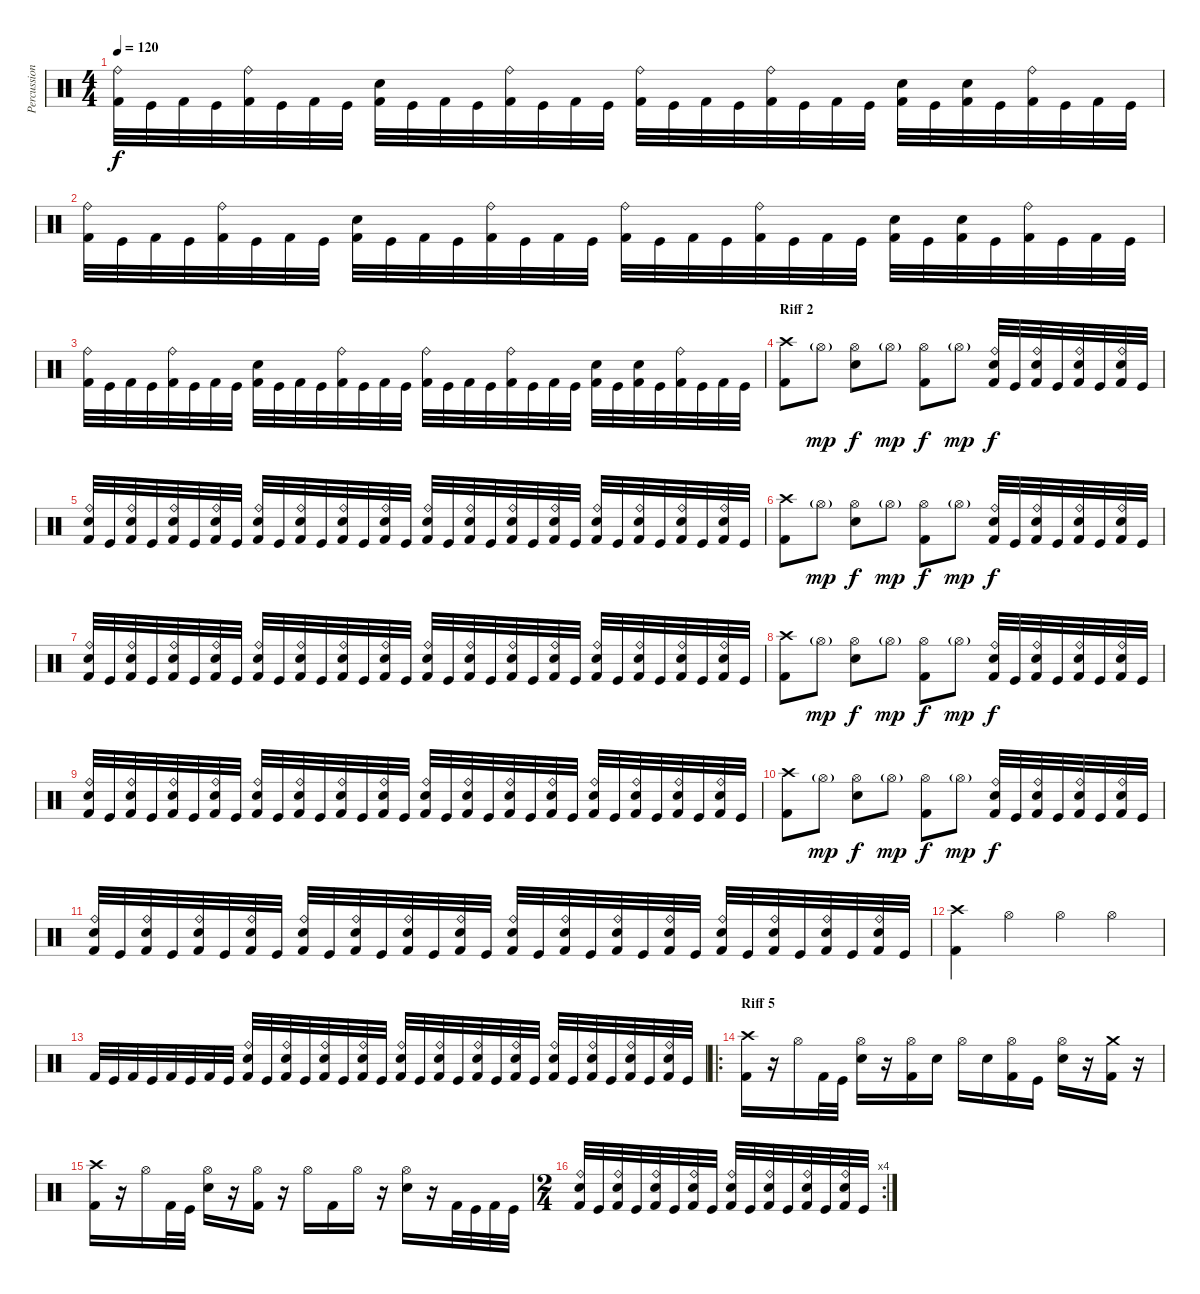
\track ("Percussion" "Percussion") {instrument percussion}
\staff {score}
\articulation defaults
\ts (4 4)
\tempo 120
\clef neutral
\ks c
("Kick (hit) 2" "Ride (bell)").32{dy f} "Kick (hit)".32 "Kick (hit) 2".32 "Kick (hit)".32 ("Kick (hit) 2" "Ride (bell)").32 "Kick (hit)".32 "Kick (hit) 2".32 "Kick (hit)".32 ("Kick (hit) 2" "Electric Snare (hit)").32 "Kick (hit)".32 "Kick (hit) 2".32 "Kick (hit)".32 ("Kick (hit) 2" "Ride (bell)").32 "Kick (hit)".32 "Kick (hit) 2".32 "Kick (hit)".32 ("Kick (hit) 2" "Ride (bell)").32 "Kick (hit)".32 "Kick (hit) 2".32 "Kick (hit)".32 ("Kick (hit) 2" "Ride (bell)").32 "Kick (hit)".32 "Kick (hit) 2".32 "Kick (hit)".32 ("Kick (hit) 2" "Electric Snare (hit)").32 "Kick (hit)".32 ("Kick (hit) 2" "Electric Snare (hit)").32 "Kick (hit)".32 ("Kick (hit) 2" "Ride (bell)").32 "Kick (hit)".32 "Kick (hit) 2".32 "Kick (hit)".32 |
("Kick (hit) 2" "Ride (bell)").32 "Kick (hit)".32 "Kick (hit) 2".32 "Kick (hit)".32 ("Kick (hit) 2" "Ride (bell)").32 "Kick (hit)".32 "Kick (hit) 2".32 "Kick (hit)".32 ("Kick (hit) 2" "Electric Snare (hit)").32 "Kick (hit)".32 "Kick (hit) 2".32 "Kick (hit)".32 ("Kick (hit) 2" "Ride (bell)").32 "Kick (hit)".32 "Kick (hit) 2".32 "Kick (hit)".32 ("Kick (hit) 2" "Ride (bell)").32 "Kick (hit)".32 "Kick (hit) 2".32 "Kick (hit)".32 ("Kick (hit) 2" "Ride (bell)").32 "Kick (hit)".32 "Kick (hit) 2".32 "Kick (hit)".32 ("Kick (hit) 2" "Electric Snare (hit)").32 "Kick (hit)".32 ("Kick (hit) 2" "Electric Snare (hit)").32 "Kick (hit)".32 ("Kick (hit) 2" "Ride (bell)").32 "Kick (hit)".32 "Kick (hit) 2".32 "Kick (hit)".32 |
("Kick (hit) 2" "Ride (bell)").32 "Kick (hit)".32 "Kick (hit) 2".32 "Kick (hit)".32 ("Kick (hit) 2" "Ride (bell)").32 "Kick (hit)".32 "Kick (hit) 2".32 "Kick (hit)".32 ("Kick (hit) 2" "Electric Snare (hit)").32 "Kick (hit)".32 "Kick (hit) 2".32 "Kick (hit)".32 ("Kick (hit) 2" "Ride (bell)").32 "Kick (hit)".32 "Kick (hit) 2".32 "Kick (hit)".32 ("Kick (hit) 2" "Ride (bell)").32 "Kick (hit)".32 "Kick (hit) 2".32 "Kick (hit)".32 ("Kick (hit) 2" "Ride (bell)").32 "Kick (hit)".32 "Kick (hit) 2".32 "Kick (hit)".32 ("Kick (hit) 2" "Electric Snare (hit)").32 "Kick (hit)".32 ("Kick (hit) 2" "Electric Snare (hit)").32 "Kick (hit)".32 ("Kick (hit) 2" "Ride (bell)").32 "Kick (hit)".32 "Kick (hit) 2".32 "Kick (hit)".32 |
\section ("" "Riff 2")
("Kick (hit) 2" "Crash high (hit)").8 "Hi-Hat (open)"{g}.8{dy mp} ("Electric Snare (hit)" "Hi-Hat (open)").8{dy f} "Hi-Hat (open)"{g}.8{dy mp} ("Kick (hit) 2" "Hi-Hat (open)").8{dy f} "Hi-Hat (open)"{g}.8{dy mp} ("Kick (hit) 2" "Electric Snare (hit)" "Ride (bell)").32{dy f} "Kick (hit)".32 ("Kick (hit) 2" "Electric Snare (hit)" "Ride (bell)").32 "Kick (hit)".32 ("Kick (hit) 2" "Electric Snare (hit)" "Ride (bell)").32 "Kick (hit)".32 ("Kick (hit) 2" "Electric Snare (hit)" "Ride (bell)").32 "Kick (hit)".32 |
("Kick (hit) 2" "Electric Snare (hit)" "Ride (bell)").32 "Kick (hit)".32 ("Kick (hit) 2" "Electric Snare (hit)" "Ride (bell)").32 "Kick (hit)".32 ("Kick (hit) 2" "Electric Snare (hit)" "Ride (bell)").32 "Kick (hit)".32 ("Kick (hit) 2" "Electric Snare (hit)" "Ride (bell)").32 "Kick (hit)".32 ("Kick (hit) 2" "Electric Snare (hit)" "Ride (bell)").32 "Kick (hit)".32 ("Kick (hit) 2" "Electric Snare (hit)" "Ride (bell)").32 "Kick (hit)".32 ("Kick (hit) 2" "Electric Snare (hit)" "Ride (bell)").32 "Kick (hit)".32 ("Kick (hit) 2" "Electric Snare (hit)" "Ride (bell)").32 "Kick (hit)".32 ("Kick (hit) 2" "Electric Snare (hit)" "Ride (bell)").32 "Kick (hit)".32 ("Kick (hit) 2" "Electric Snare (hit)" "Ride (bell)").32 "Kick (hit)".32 ("Kick (hit) 2" "Electric Snare (hit)" "Ride (bell)").32 "Kick (hit)".32 ("Kick (hit) 2" "Electric Snare (hit)" "Ride (bell)").32 "Kick (hit)".32 ("Kick (hit) 2" "Electric Snare (hit)" "Ride (bell)").32 "Kick (hit)".32 ("Kick (hit) 2" "Electric Snare (hit)" "Ride (bell)").32 "Kick (hit)".32 ("Kick (hit) 2" "Electric Snare (hit)" "Ride (bell)").32 "Kick (hit)".32 ("Kick (hit) 2" "Electric Snare (hit)" "Ride (bell)").32 "Kick (hit)".32 |
("Kick (hit) 2" "Crash high (hit)").8 "Hi-Hat (open)"{g}.8{dy mp} ("Electric Snare (hit)" "Hi-Hat (open)").8{dy f} "Hi-Hat (open)"{g}.8{dy mp} ("Kick (hit) 2" "Hi-Hat (open)").8{dy f} "Hi-Hat (open)"{g}.8{dy mp} ("Kick (hit) 2" "Electric Snare (hit)" "Ride (bell)").32{dy f} "Kick (hit)".32 ("Kick (hit) 2" "Electric Snare (hit)" "Ride (bell)").32 "Kick (hit)".32 ("Kick (hit) 2" "Electric Snare (hit)" "Ride (bell)").32 "Kick (hit)".32 ("Kick (hit) 2" "Electric Snare (hit)" "Ride (bell)").32 "Kick (hit)".32 |
("Kick (hit) 2" "Electric Snare (hit)" "Ride (bell)").32 "Kick (hit)".32 ("Kick (hit) 2" "Electric Snare (hit)" "Ride (bell)").32 "Kick (hit)".32 ("Kick (hit) 2" "Electric Snare (hit)" "Ride (bell)").32 "Kick (hit)".32 ("Kick (hit) 2" "Electric Snare (hit)" "Ride (bell)").32 "Kick (hit)".32 ("Kick (hit) 2" "Electric Snare (hit)" "Ride (bell)").32 "Kick (hit)".32 ("Kick (hit) 2" "Electric Snare (hit)" "Ride (bell)").32 "Kick (hit)".32 ("Kick (hit) 2" "Electric Snare (hit)" "Ride (bell)").32 "Kick (hit)".32 ("Kick (hit) 2" "Electric Snare (hit)" "Ride (bell)").32 "Kick (hit)".32 ("Kick (hit) 2" "Electric Snare (hit)" "Ride (bell)").32 "Kick (hit)".32 ("Kick (hit) 2" "Electric Snare (hit)" "Ride (bell)").32 "Kick (hit)".32 ("Kick (hit) 2" "Electric Snare (hit)" "Ride (bell)").32 "Kick (hit)".32 ("Kick (hit) 2" "Electric Snare (hit)" "Ride (bell)").32 "Kick (hit)".32 ("Kick (hit) 2" "Electric Snare (hit)" "Ride (bell)").32 "Kick (hit)".32 ("Kick (hit) 2" "Electric Snare (hit)" "Ride (bell)").32 "Kick (hit)".32 ("Kick (hit) 2" "Electric Snare (hit)" "Ride (bell)").32 "Kick (hit)".32 ("Kick (hit) 2" "Electric Snare (hit)" "Ride (bell)").32 "Kick (hit)".32 |
("Kick (hit) 2" "Crash high (hit)").8 "Hi-Hat (open)"{g}.8{dy mp} ("Electric Snare (hit)" "Hi-Hat (open)").8{dy f} "Hi-Hat (open)"{g}.8{dy mp} ("Kick (hit) 2" "Hi-Hat (open)").8{dy f} "Hi-Hat (open)"{g}.8{dy mp} ("Kick (hit) 2" "Electric Snare (hit)" "Ride (bell)").32{dy f} "Kick (hit)".32 ("Kick (hit) 2" "Electric Snare (hit)" "Ride (bell)").32 "Kick (hit)".32 ("Kick (hit) 2" "Electric Snare (hit)" "Ride (bell)").32 "Kick (hit)".32 ("Kick (hit) 2" "Electric Snare (hit)" "Ride (bell)").32 "Kick (hit)".32 |
("Kick (hit) 2" "Electric Snare (hit)" "Ride (bell)").32 "Kick (hit)".32 ("Kick (hit) 2" "Electric Snare (hit)" "Ride (bell)").32 "Kick (hit)".32 ("Kick (hit) 2" "Electric Snare (hit)" "Ride (bell)").32 "Kick (hit)".32 ("Kick (hit) 2" "Electric Snare (hit)" "Ride (bell)").32 "Kick (hit)".32 ("Kick (hit) 2" "Electric Snare (hit)" "Ride (bell)").32 "Kick (hit)".32 ("Kick (hit) 2" "Electric Snare (hit)" "Ride (bell)").32 "Kick (hit)".32 ("Kick (hit) 2" "Electric Snare (hit)" "Ride (bell)").32 "Kick (hit)".32 ("Kick (hit) 2" "Electric Snare (hit)" "Ride (bell)").32 "Kick (hit)".32 ("Kick (hit) 2" "Electric Snare (hit)" "Ride (bell)").32 "Kick (hit)".32 ("Kick (hit) 2" "Electric Snare (hit)" "Ride (bell)").32 "Kick (hit)".32 ("Kick (hit) 2" "Electric Snare (hit)" "Ride (bell)").32 "Kick (hit)".32 ("Kick (hit) 2" "Electric Snare (hit)" "Ride (bell)").32 "Kick (hit)".32 ("Kick (hit) 2" "Electric Snare (hit)" "Ride (bell)").32 "Kick (hit)".32 ("Kick (hit) 2" "Electric Snare (hit)" "Ride (bell)").32 "Kick (hit)".32 ("Kick (hit) 2" "Electric Snare (hit)" "Ride (bell)").32 "Kick (hit)".32 ("Kick (hit) 2" "Electric Snare (hit)" "Ride (bell)").32 "Kick (hit)".32 |
("Kick (hit) 2" "Crash high (hit)").8 "Hi-Hat (open)"{g}.8{dy mp} ("Electric Snare (hit)" "Hi-Hat (open)").8{dy f} "Hi-Hat (open)"{g}.8{dy mp} ("Kick (hit) 2" "Hi-Hat (open)").8{dy f} "Hi-Hat (open)"{g}.8{dy mp} ("Kick (hit) 2" "Electric Snare (hit)" "Ride (bell)").32{dy f} "Kick (hit)".32 ("Kick (hit) 2" "Electric Snare (hit)" "Ride (bell)").32 "Kick (hit)".32 ("Kick (hit) 2" "Electric Snare (hit)" "Ride (bell)").32 "Kick (hit)".32 ("Kick (hit) 2" "Electric Snare (hit)" "Ride (bell)").32 "Kick (hit)".32 |
("Kick (hit) 2" "Electric Snare (hit)" "Ride (bell)").32 "Kick (hit)".32 ("Kick (hit) 2" "Electric Snare (hit)" "Ride (bell)").32 "Kick (hit)".32 ("Kick (hit) 2" "Electric Snare (hit)" "Ride (bell)").32 "Kick (hit)".32 ("Kick (hit) 2" "Electric Snare (hit)" "Ride (bell)").32 "Kick (hit)".32 ("Kick (hit) 2" "Electric Snare (hit)" "Ride (bell)").32 "Kick (hit)".32 ("Kick (hit) 2" "Electric Snare (hit)" "Ride (bell)").32 "Kick (hit)".32 ("Kick (hit) 2" "Electric Snare (hit)" "Ride (bell)").32 "Kick (hit)".32 ("Kick (hit) 2" "Electric Snare (hit)" "Ride (bell)").32 "Kick (hit)".32 ("Kick (hit) 2" "Electric Snare (hit)" "Ride (bell)").32 "Kick (hit)".32 ("Kick (hit) 2" "Electric Snare (hit)" "Ride (bell)").32 "Kick (hit)".32 ("Kick (hit) 2" "Electric Snare (hit)" "Ride (bell)").32 "Kick (hit)".32 ("Kick (hit) 2" "Electric Snare (hit)" "Ride (bell)").32 "Kick (hit)".32 ("Kick (hit) 2" "Electric Snare (hit)" "Ride (bell)").32 "Kick (hit)".32 ("Kick (hit) 2" "Electric Snare (hit)" "Ride (bell)").32 "Kick (hit)".32 ("Kick (hit) 2" "Electric Snare (hit)" "Ride (bell)").32 "Kick (hit)".32 ("Kick (hit) 2" "Electric Snare (hit)" "Ride (bell)").32 "Kick (hit)".32 |
("Kick (hit) 2" "Crash high (hit)").4 "Hi-Hat (open)".4 "Hi-Hat (open)".4 "Hi-Hat (open)".4 |
"Kick (hit) 2".32 "Kick (hit)".32 "Kick (hit) 2".32 "Kick (hit)".32 "Kick (hit) 2".32 "Kick (hit)".32 "Kick (hit) 2".32 "Kick (hit)".32 ("Kick (hit) 2" "Electric Snare (hit)" "Ride (bell)").32 "Kick (hit)".32 ("Kick (hit) 2" "Electric Snare (hit)" "Ride (bell)").32 "Kick (hit)".32 ("Kick (hit) 2" "Electric Snare (hit)" "Ride (bell)").32 "Kick (hit)".32 ("Kick (hit) 2" "Electric Snare (hit)" "Ride (bell)").32 "Kick (hit)".32 ("Kick (hit) 2" "Electric Snare (hit)" "Ride (bell)").32 "Kick (hit)".32 ("Kick (hit) 2" "Electric Snare (hit)" "Ride (bell)").32 "Kick (hit)".32 ("Kick (hit) 2" "Electric Snare (hit)" "Ride (bell)").32 "Kick (hit)".32 ("Kick (hit) 2" "Electric Snare (hit)" "Ride (bell)").32 "Kick (hit)".32 ("Kick (hit) 2" "Electric Snare (hit)" "Ride (bell)").32 "Kick (hit)".32 ("Kick (hit) 2" "Electric Snare (hit)" "Ride (bell)").32 "Kick (hit)".32 ("Kick (hit) 2" "Electric Snare (hit)" "Ride (bell)").32 "Kick (hit)".32 ("Kick (hit) 2" "Electric Snare (hit)" "Ride (bell)").32 "Kick (hit)".32 |
\ro
\section ("" "Riff 5")
("Kick (hit) 2" "Crash high (hit)").16 r.16 "Hi-Hat (open)".16 "Kick (hit) 2".32 "Kick (hit)".32 ("Electric Snare (hit)" "Hi-Hat (open)").16 r.16 ("Kick (hit) 2" "Hi-Hat (open)").16 "Electric Snare (hit)".16 "Hi-Hat (open)".16 "Electric Snare (hit)".16 ("Kick (hit) 2" "Hi-Hat (open)").16 "Kick (hit)".16 ("Electric Snare (hit)" "Hi-Hat (open)").16 r.16 ("Kick (hit) 2" "Crash medium (hit)").16 r.16 |
("Kick (hit) 2" "Crash high (hit)").16 r.16 "Hi-Hat (open)".16 "Kick (hit) 2".32 "Kick (hit)".32 ("Electric Snare (hit)" "Hi-Hat (open)").16 r.16 ("Kick (hit) 2" "Hi-Hat (open)").16 r.16 "Hi-Hat (open)".16 "Kick (hit) 2".16 "Hi-Hat (open)".16 r.16 ("Electric Snare (hit)" "Hi-Hat (open)").16 r.16 "Kick (hit) 2".32 "Kick (hit)".32 "Kick (hit) 2".32 "Kick (hit)".32 |
\rc 4
\ts (2 4)
("Kick (hit) 2" "Electric Snare (hit)" "Ride (bell)").32 "Kick (hit)".32 ("Kick (hit) 2" "Electric Snare (hit)" "Ride (bell)").32 "Kick (hit)".32 ("Kick (hit) 2" "Electric Snare (hit)" "Ride (bell)").32 "Kick (hit)".32 ("Kick (hit) 2" "Electric Snare (hit)" "Ride (bell)").32 "Kick (hit)".32 ("Kick (hit) 2" "Electric Snare (hit)" "Ride (bell)").32 "Kick (hit)".32 ("Kick (hit) 2" "Electric Snare (hit)" "Ride (bell)").32 "Kick (hit)".32 ("Kick (hit) 2" "Electric Snare (hit)" "Ride (bell)").32 "Kick (hit)".32 ("Kick (hit) 2" "Electric Snare (hit)" "Ride (bell)").32 "Kick (hit)".32
